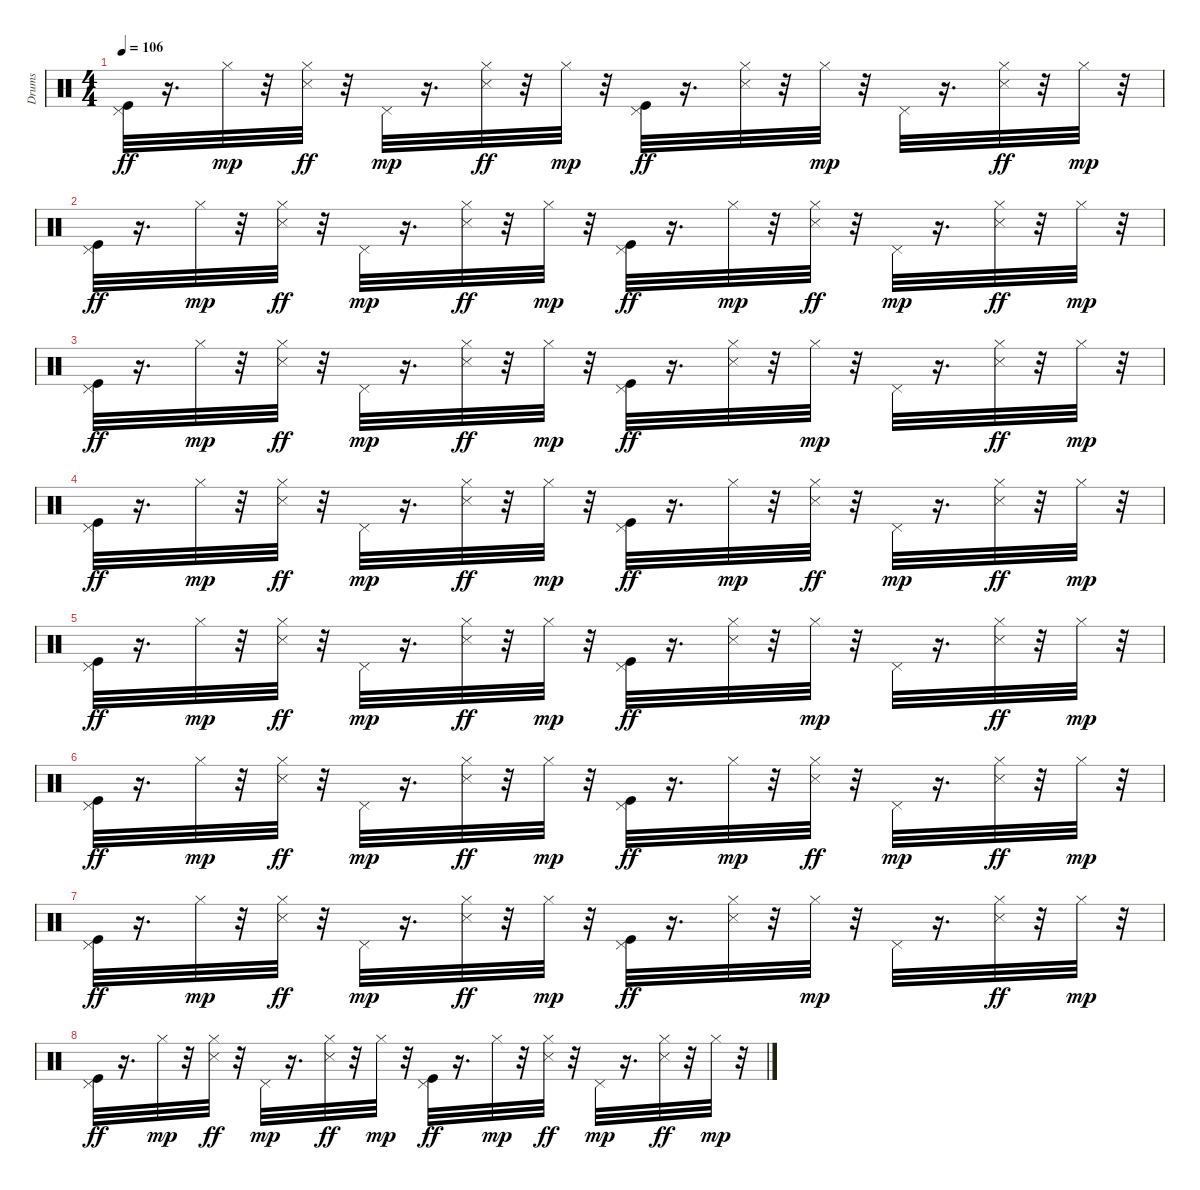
\track ("Drums" "Drums") {instrument percussion}
\staff {score}
\articulation defaults
\ts (4 4)
\tempo 106
\clef neutral
\ks c
("Pedal Hi-Hat (hit)" "Kick (hit)").32{dy ff} r.16{d} "Hi-Hat (closed)".32{dy mp} r.32 ("Hi-Hat (closed)" "Snare (side stick) 3").32{dy ff} r.32 "Pedal Hi-Hat (hit)".32{dy mp} r.16{d} ("Hi-Hat (closed)" "Snare (side stick) 3").32{dy ff} r.32 "Hi-Hat (closed)".32{dy mp} r.32 ("Pedal Hi-Hat (hit)" "Kick (hit)").32{dy ff} r.16{d} ("Hi-Hat (closed)" "Snare (side stick) 3").32 r.32 "Hi-Hat (closed)".32{dy mp} r.32 "Pedal Hi-Hat (hit)".32 r.16{d} ("Hi-Hat (closed)" "Snare (side stick) 3").32{dy ff} r.32 "Hi-Hat (closed)".32{dy mp} r.32 |
("Pedal Hi-Hat (hit)" "Kick (hit)").32{dy ff} r.16{d} "Hi-Hat (closed)".32{dy mp} r.32 ("Hi-Hat (closed)" "Snare (side stick) 3").32{dy ff} r.32 "Pedal Hi-Hat (hit)".32{dy mp} r.16{d} ("Hi-Hat (closed)" "Snare (side stick) 3").32{dy ff} r.32 "Hi-Hat (closed)".32{dy mp} r.32 ("Pedal Hi-Hat (hit)" "Kick (hit)").32{dy ff} r.16{d} "Hi-Hat (closed)".32{dy mp} r.32 ("Hi-Hat (closed)" "Snare (side stick) 3").32{dy ff} r.32 "Pedal Hi-Hat (hit)".32{dy mp} r.16{d} ("Hi-Hat (closed)" "Snare (side stick) 3").32{dy ff} r.32 "Hi-Hat (closed)".32{dy mp} r.32 |
("Pedal Hi-Hat (hit)" "Kick (hit)").32{dy ff} r.16{d} "Hi-Hat (closed)".32{dy mp} r.32 ("Hi-Hat (closed)" "Snare (side stick) 3").32{dy ff} r.32 "Pedal Hi-Hat (hit)".32{dy mp} r.16{d} ("Hi-Hat (closed)" "Snare (side stick) 3").32{dy ff} r.32 "Hi-Hat (closed)".32{dy mp} r.32 ("Pedal Hi-Hat (hit)" "Kick (hit)").32{dy ff} r.16{d} ("Hi-Hat (closed)" "Snare (side stick) 3").32 r.32 "Hi-Hat (closed)".32{dy mp} r.32 "Pedal Hi-Hat (hit)".32 r.16{d} ("Hi-Hat (closed)" "Snare (side stick) 3").32{dy ff} r.32 "Hi-Hat (closed)".32{dy mp} r.32 |
("Pedal Hi-Hat (hit)" "Kick (hit)").32{dy ff} r.16{d} "Hi-Hat (closed)".32{dy mp} r.32 ("Hi-Hat (closed)" "Snare (side stick) 3").32{dy ff} r.32 "Pedal Hi-Hat (hit)".32{dy mp} r.16{d} ("Hi-Hat (closed)" "Snare (side stick) 3").32{dy ff} r.32 "Hi-Hat (closed)".32{dy mp} r.32 ("Pedal Hi-Hat (hit)" "Kick (hit)").32{dy ff} r.16{d} "Hi-Hat (closed)".32{dy mp} r.32 ("Hi-Hat (closed)" "Snare (side stick) 3").32{dy ff} r.32 "Pedal Hi-Hat (hit)".32{dy mp} r.16{d} ("Hi-Hat (closed)" "Snare (side stick) 3").32{dy ff} r.32 "Hi-Hat (closed)".32{dy mp} r.32 |
("Pedal Hi-Hat (hit)" "Kick (hit)").32{dy ff} r.16{d} "Hi-Hat (closed)".32{dy mp} r.32 ("Hi-Hat (closed)" "Snare (side stick) 3").32{dy ff} r.32 "Pedal Hi-Hat (hit)".32{dy mp} r.16{d} ("Hi-Hat (closed)" "Snare (side stick) 3").32{dy ff} r.32 "Hi-Hat (closed)".32{dy mp} r.32 ("Pedal Hi-Hat (hit)" "Kick (hit)").32{dy ff} r.16{d} ("Hi-Hat (closed)" "Snare (side stick) 3").32 r.32 "Hi-Hat (closed)".32{dy mp} r.32 "Pedal Hi-Hat (hit)".32 r.16{d} ("Hi-Hat (closed)" "Snare (side stick) 3").32{dy ff} r.32 "Hi-Hat (closed)".32{dy mp} r.32 |
("Pedal Hi-Hat (hit)" "Kick (hit)").32{dy ff} r.16{d} "Hi-Hat (closed)".32{dy mp} r.32 ("Hi-Hat (closed)" "Snare (side stick) 3").32{dy ff} r.32 "Pedal Hi-Hat (hit)".32{dy mp} r.16{d} ("Hi-Hat (closed)" "Snare (side stick) 3").32{dy ff} r.32 "Hi-Hat (closed)".32{dy mp} r.32 ("Pedal Hi-Hat (hit)" "Kick (hit)").32{dy ff} r.16{d} "Hi-Hat (closed)".32{dy mp} r.32 ("Hi-Hat (closed)" "Snare (side stick) 3").32{dy ff} r.32 "Pedal Hi-Hat (hit)".32{dy mp} r.16{d} ("Hi-Hat (closed)" "Snare (side stick) 3").32{dy ff} r.32 "Hi-Hat (closed)".32{dy mp} r.32 |
("Pedal Hi-Hat (hit)" "Kick (hit)").32{dy ff} r.16{d} "Hi-Hat (closed)".32{dy mp} r.32 ("Hi-Hat (closed)" "Snare (side stick) 3").32{dy ff} r.32 "Pedal Hi-Hat (hit)".32{dy mp} r.16{d} ("Hi-Hat (closed)" "Snare (side stick) 3").32{dy ff} r.32 "Hi-Hat (closed)".32{dy mp} r.32 ("Pedal Hi-Hat (hit)" "Kick (hit)").32{dy ff} r.16{d} ("Hi-Hat (closed)" "Snare (side stick) 3").32 r.32 "Hi-Hat (closed)".32{dy mp} r.32 "Pedal Hi-Hat (hit)".32 r.16{d} ("Hi-Hat (closed)" "Snare (side stick) 3").32{dy ff} r.32 "Hi-Hat (closed)".32{dy mp} r.32 |
("Pedal Hi-Hat (hit)" "Kick (hit)").32{dy ff} r.16{d} "Hi-Hat (closed)".32{dy mp} r.32 ("Hi-Hat (closed)" "Snare (side stick) 3").32{dy ff} r.32 "Pedal Hi-Hat (hit)".32{dy mp} r.16{d} ("Hi-Hat (closed)" "Snare (side stick) 3").32{dy ff} r.32 "Hi-Hat (closed)".32{dy mp} r.32 ("Pedal Hi-Hat (hit)" "Kick (hit)").32{dy ff} r.16{d} "Hi-Hat (closed)".32{dy mp} r.32 ("Hi-Hat (closed)" "Snare (side stick) 3").32{dy ff} r.32 "Pedal Hi-Hat (hit)".32{dy mp} r.16{d} ("Hi-Hat (closed)" "Snare (side stick) 3").32{dy ff} r.32 "Hi-Hat (closed)".32{dy mp} r.32
